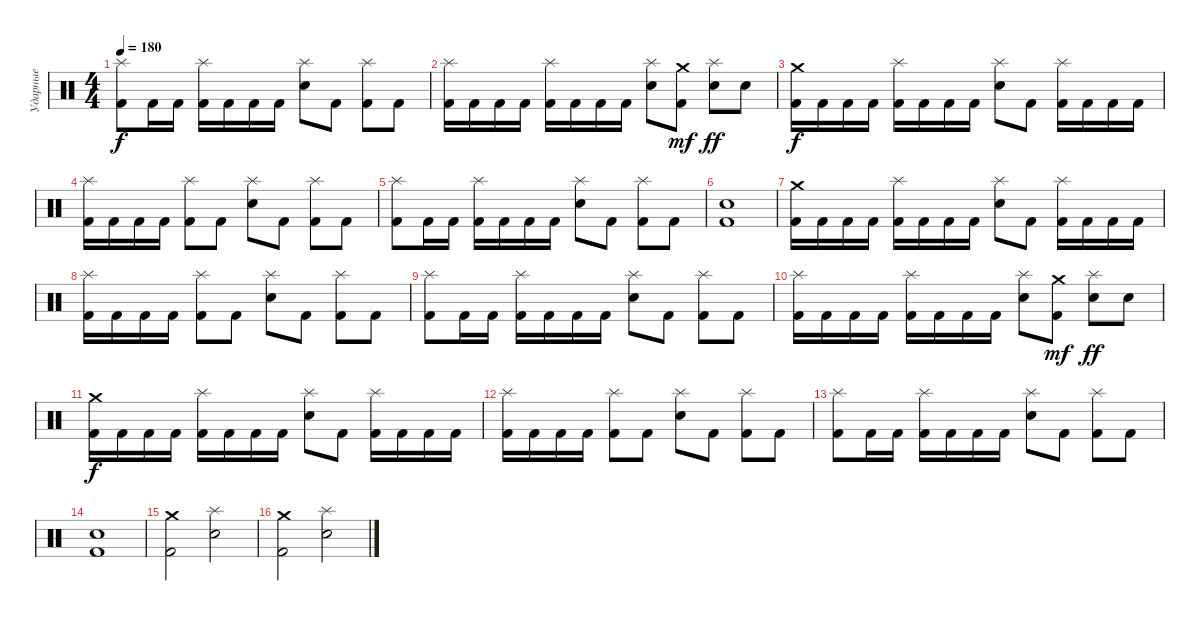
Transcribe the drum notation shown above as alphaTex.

\track ("Ударные" "Ударные") {instrument percussion bank 127}
\staff {score}
\articulation defaults
\ts (4 4)
\tempo 180
\clef neutral
\ks c
("Splash (hit)" "Kick (hit) 2").8{dy f} "Kick (hit) 2".16 "Kick (hit) 2".16 ("Splash (hit)" "Kick (hit) 2").16 "Kick (hit) 2".16 "Kick (hit) 2".16 "Kick (hit) 2".16 ("Splash (hit)" "Snare (hit) 2").8 "Kick (hit) 2".8 ("Splash (hit)" "Kick (hit) 2").8 "Kick (hit) 2".8 |
("Splash (hit)" "Kick (hit) 2").16 "Kick (hit) 2".16 "Kick (hit) 2".16 "Kick (hit) 2".16 ("Splash (hit)" "Kick (hit) 2").16 "Kick (hit) 2".16 "Kick (hit) 2".16 "Kick (hit) 2".16 ("Splash (hit)" "Snare (hit) 2").8 ("Crash medium (hit)" "Kick (hit) 2").8{dy mf} ("Splash (hit)" "Snare (hit) 2").8{dy ff} "Snare (hit) 2".8 |
("Crash medium (hit)" "Kick (hit) 2").16{dy f} "Kick (hit) 2".16 "Kick (hit) 2".16 "Kick (hit) 2".16 ("Splash (hit)" "Kick (hit) 2").16 "Kick (hit) 2".16 "Kick (hit) 2".16 "Kick (hit) 2".16 ("Splash (hit)" "Snare (hit) 2").8 "Kick (hit) 2".8 ("Splash (hit)" "Kick (hit) 2").16 "Kick (hit) 2".16 "Kick (hit) 2".16 "Kick (hit) 2".16 |
("Splash (hit)" "Kick (hit) 2").16 "Kick (hit) 2".16 "Kick (hit) 2".16 "Kick (hit) 2".16 ("Splash (hit)" "Kick (hit) 2").8 "Kick (hit) 2".8 ("Splash (hit)" "Snare (hit) 2").8 "Kick (hit) 2".8 ("Splash (hit)" "Kick (hit) 2").8 "Kick (hit) 2".8 |
("Splash (hit)" "Kick (hit) 2").8 "Kick (hit) 2".16 "Kick (hit) 2".16 ("Splash (hit)" "Kick (hit) 2").16 "Kick (hit) 2".16 "Kick (hit) 2".16 "Kick (hit) 2".16 ("Splash (hit)" "Snare (hit) 2").8 "Kick (hit) 2".8 ("Splash (hit)" "Kick (hit) 2").8 "Kick (hit) 2".8 |
("Snare (hit) 2" "Kick (hit) 2").1 |
("Crash medium (hit)" "Kick (hit) 2").16 "Kick (hit) 2".16 "Kick (hit) 2".16 "Kick (hit) 2".16 ("Splash (hit)" "Kick (hit) 2").16 "Kick (hit) 2".16 "Kick (hit) 2".16 "Kick (hit) 2".16 ("Splash (hit)" "Snare (hit) 2").8 "Kick (hit) 2".8 ("Splash (hit)" "Kick (hit) 2").16 "Kick (hit) 2".16 "Kick (hit) 2".16 "Kick (hit) 2".16 |
("Splash (hit)" "Kick (hit) 2").16 "Kick (hit) 2".16 "Kick (hit) 2".16 "Kick (hit) 2".16 ("Splash (hit)" "Kick (hit) 2").8 "Kick (hit) 2".8 ("Splash (hit)" "Snare (hit) 2").8 "Kick (hit) 2".8 ("Splash (hit)" "Kick (hit) 2").8 "Kick (hit) 2".8 |
("Splash (hit)" "Kick (hit) 2").8 "Kick (hit) 2".16 "Kick (hit) 2".16 ("Splash (hit)" "Kick (hit) 2").16 "Kick (hit) 2".16 "Kick (hit) 2".16 "Kick (hit) 2".16 ("Splash (hit)" "Snare (hit) 2").8 "Kick (hit) 2".8 ("Splash (hit)" "Kick (hit) 2").8 "Kick (hit) 2".8 |
("Splash (hit)" "Kick (hit) 2").16 "Kick (hit) 2".16 "Kick (hit) 2".16 "Kick (hit) 2".16 ("Splash (hit)" "Kick (hit) 2").16 "Kick (hit) 2".16 "Kick (hit) 2".16 "Kick (hit) 2".16 ("Splash (hit)" "Snare (hit) 2").8 ("Crash medium (hit)" "Kick (hit) 2").8{dy mf} ("Splash (hit)" "Snare (hit) 2").8{dy ff} "Snare (hit) 2".8 |
("Crash medium (hit)" "Kick (hit) 2").16{dy f} "Kick (hit) 2".16 "Kick (hit) 2".16 "Kick (hit) 2".16 ("Splash (hit)" "Kick (hit) 2").16 "Kick (hit) 2".16 "Kick (hit) 2".16 "Kick (hit) 2".16 ("Splash (hit)" "Snare (hit) 2").8 "Kick (hit) 2".8 ("Splash (hit)" "Kick (hit) 2").16 "Kick (hit) 2".16 "Kick (hit) 2".16 "Kick (hit) 2".16 |
("Splash (hit)" "Kick (hit) 2").16 "Kick (hit) 2".16 "Kick (hit) 2".16 "Kick (hit) 2".16 ("Splash (hit)" "Kick (hit) 2").8 "Kick (hit) 2".8 ("Splash (hit)" "Snare (hit) 2").8 "Kick (hit) 2".8 ("Splash (hit)" "Kick (hit) 2").8 "Kick (hit) 2".8 |
("Splash (hit)" "Kick (hit) 2").8 "Kick (hit) 2".16 "Kick (hit) 2".16 ("Splash (hit)" "Kick (hit) 2").16 "Kick (hit) 2".16 "Kick (hit) 2".16 "Kick (hit) 2".16 ("Splash (hit)" "Snare (hit) 2").8 "Kick (hit) 2".8 ("Splash (hit)" "Kick (hit) 2").8 "Kick (hit) 2".8 |
("Snare (hit) 2" "Kick (hit) 2").1 |
("Crash medium (hit)" "Kick (hit) 2").2 ("Splash (hit)" "Snare (hit) 2").2 |
("Crash medium (hit)" "Kick (hit) 2").2 ("Splash (hit)" "Snare (hit) 2").2
